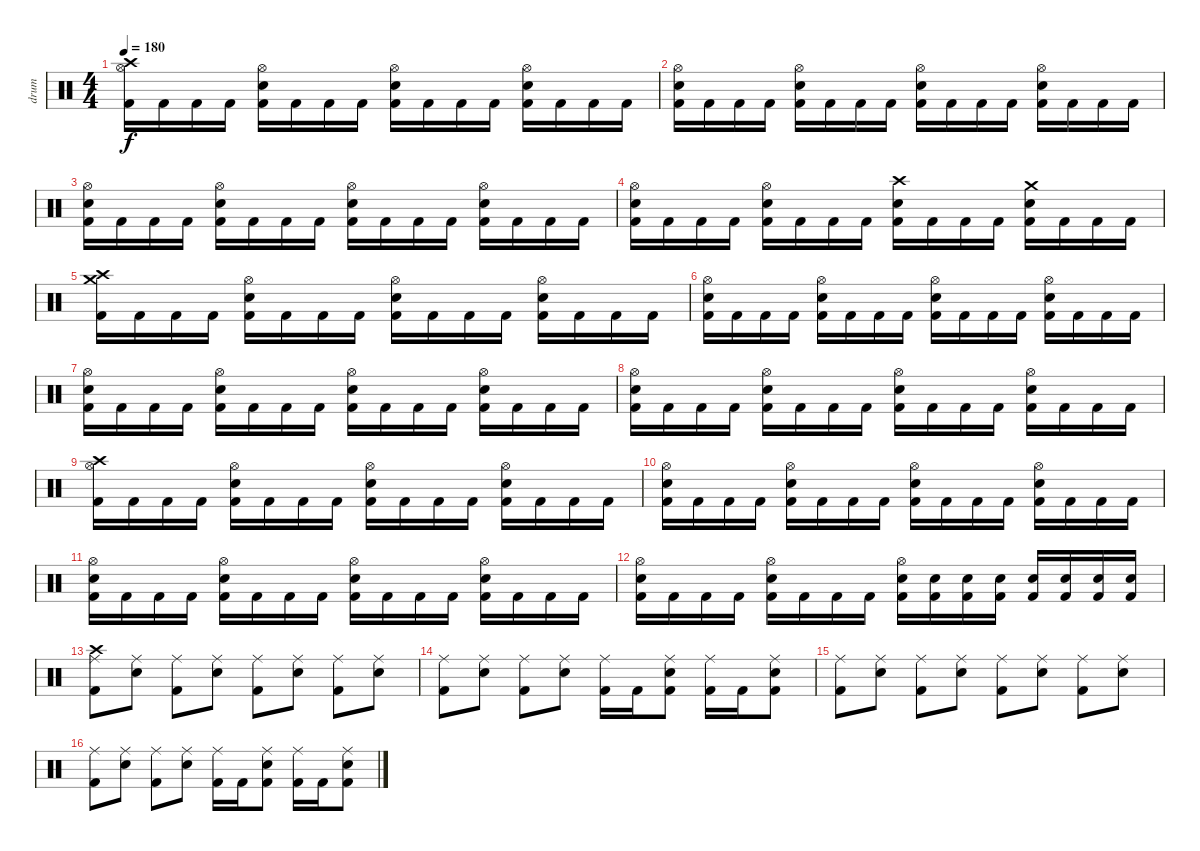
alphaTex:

\track ("drum" "drum") {instrument percussion}
\staff {score}
\articulation defaults
\ts (4 4)
\tempo 180
\clef neutral
\ks c
("Hi-Hat (open)" "Crash high (hit)" "Kick (hit) 2").16{dy f} "Kick (hit) 2".16 "Kick (hit) 2".16 "Kick (hit) 2".16 ("Hi-Hat (open)" "Electric Snare (hit)" "Kick (hit) 2").16 "Kick (hit) 2".16 "Kick (hit) 2".16 "Kick (hit) 2".16 ("Hi-Hat (open)" "Electric Snare (hit)" "Kick (hit) 2").16 "Kick (hit) 2".16 "Kick (hit) 2".16 "Kick (hit) 2".16 ("Hi-Hat (open)" "Electric Snare (hit)" "Kick (hit) 2").16 "Kick (hit) 2".16 "Kick (hit) 2".16 "Kick (hit) 2".16 |
("Hi-Hat (open)" "Electric Snare (hit)" "Kick (hit) 2").16 "Kick (hit) 2".16 "Kick (hit) 2".16 "Kick (hit) 2".16 ("Hi-Hat (open)" "Electric Snare (hit)" "Kick (hit) 2").16 "Kick (hit) 2".16 "Kick (hit) 2".16 "Kick (hit) 2".16 ("Hi-Hat (open)" "Electric Snare (hit)" "Kick (hit) 2").16 "Kick (hit) 2".16 "Kick (hit) 2".16 "Kick (hit) 2".16 ("Hi-Hat (open)" "Electric Snare (hit)" "Kick (hit) 2").16 "Kick (hit) 2".16 "Kick (hit) 2".16 "Kick (hit) 2".16 |
("Hi-Hat (open)" "Electric Snare (hit)" "Kick (hit) 2").16 "Kick (hit) 2".16 "Kick (hit) 2".16 "Kick (hit) 2".16 ("Hi-Hat (open)" "Electric Snare (hit)" "Kick (hit) 2").16 "Kick (hit) 2".16 "Kick (hit) 2".16 "Kick (hit) 2".16 ("Hi-Hat (open)" "Electric Snare (hit)" "Kick (hit) 2").16 "Kick (hit) 2".16 "Kick (hit) 2".16 "Kick (hit) 2".16 ("Hi-Hat (open)" "Electric Snare (hit)" "Kick (hit) 2").16 "Kick (hit) 2".16 "Kick (hit) 2".16 "Kick (hit) 2".16 |
("Hi-Hat (open)" "Electric Snare (hit)" "Kick (hit) 2").16 "Kick (hit) 2".16 "Kick (hit) 2".16 "Kick (hit) 2".16 ("Hi-Hat (open)" "Electric Snare (hit)" "Kick (hit) 2").16 "Kick (hit) 2".16 "Kick (hit) 2".16 "Kick (hit) 2".16 ("Crash high (hit)" "Electric Snare (hit)" "Kick (hit) 2").16 "Kick (hit) 2".16 "Kick (hit) 2".16 "Kick (hit) 2".16 ("Crash medium (hit)" "Electric Snare (hit)" "Kick (hit) 2").16 "Kick (hit) 2".16 "Kick (hit) 2".16 "Kick (hit) 2".16 |
("Crash medium (hit)" "Crash high (hit)" "Kick (hit) 2").16 "Kick (hit) 2".16 "Kick (hit) 2".16 "Kick (hit) 2".16 ("Hi-Hat (open)" "Electric Snare (hit)" "Kick (hit) 2").16 "Kick (hit) 2".16 "Kick (hit) 2".16 "Kick (hit) 2".16 ("Hi-Hat (open)" "Electric Snare (hit)" "Kick (hit) 2").16 "Kick (hit) 2".16 "Kick (hit) 2".16 "Kick (hit) 2".16 ("Hi-Hat (open)" "Electric Snare (hit)" "Kick (hit) 2").16 "Kick (hit) 2".16 "Kick (hit) 2".16 "Kick (hit) 2".16 |
("Hi-Hat (open)" "Electric Snare (hit)" "Kick (hit) 2").16 "Kick (hit) 2".16 "Kick (hit) 2".16 "Kick (hit) 2".16 ("Hi-Hat (open)" "Electric Snare (hit)" "Kick (hit) 2").16 "Kick (hit) 2".16 "Kick (hit) 2".16 "Kick (hit) 2".16 ("Hi-Hat (open)" "Electric Snare (hit)" "Kick (hit) 2").16 "Kick (hit) 2".16 "Kick (hit) 2".16 "Kick (hit) 2".16 ("Hi-Hat (open)" "Electric Snare (hit)" "Kick (hit) 2").16 "Kick (hit) 2".16 "Kick (hit) 2".16 "Kick (hit) 2".16 |
("Hi-Hat (open)" "Electric Snare (hit)" "Kick (hit) 2").16 "Kick (hit) 2".16 "Kick (hit) 2".16 "Kick (hit) 2".16 ("Hi-Hat (open)" "Electric Snare (hit)" "Kick (hit) 2").16 "Kick (hit) 2".16 "Kick (hit) 2".16 "Kick (hit) 2".16 ("Hi-Hat (open)" "Electric Snare (hit)" "Kick (hit) 2").16 "Kick (hit) 2".16 "Kick (hit) 2".16 "Kick (hit) 2".16 ("Hi-Hat (open)" "Electric Snare (hit)" "Kick (hit) 2").16 "Kick (hit) 2".16 "Kick (hit) 2".16 "Kick (hit) 2".16 |
("Hi-Hat (open)" "Electric Snare (hit)" "Kick (hit) 2").16 "Kick (hit) 2".16 "Kick (hit) 2".16 "Kick (hit) 2".16 ("Hi-Hat (open)" "Electric Snare (hit)" "Kick (hit) 2").16 "Kick (hit) 2".16 "Kick (hit) 2".16 "Kick (hit) 2".16 ("Hi-Hat (open)" "Electric Snare (hit)" "Kick (hit) 2").16 "Kick (hit) 2".16 "Kick (hit) 2".16 "Kick (hit) 2".16 ("Hi-Hat (open)" "Electric Snare (hit)" "Kick (hit) 2").16 "Kick (hit) 2".16 "Kick (hit) 2".16 "Kick (hit) 2".16 |
("Hi-Hat (open)" "Crash high (hit)" "Kick (hit) 2").16 "Kick (hit) 2".16 "Kick (hit) 2".16 "Kick (hit) 2".16 ("Hi-Hat (open)" "Electric Snare (hit)" "Kick (hit) 2").16 "Kick (hit) 2".16 "Kick (hit) 2".16 "Kick (hit) 2".16 ("Hi-Hat (open)" "Electric Snare (hit)" "Kick (hit) 2").16 "Kick (hit) 2".16 "Kick (hit) 2".16 "Kick (hit) 2".16 ("Hi-Hat (open)" "Electric Snare (hit)" "Kick (hit) 2").16 "Kick (hit) 2".16 "Kick (hit) 2".16 "Kick (hit) 2".16 |
("Hi-Hat (open)" "Electric Snare (hit)" "Kick (hit) 2").16 "Kick (hit) 2".16 "Kick (hit) 2".16 "Kick (hit) 2".16 ("Hi-Hat (open)" "Electric Snare (hit)" "Kick (hit) 2").16 "Kick (hit) 2".16 "Kick (hit) 2".16 "Kick (hit) 2".16 ("Hi-Hat (open)" "Electric Snare (hit)" "Kick (hit) 2").16 "Kick (hit) 2".16 "Kick (hit) 2".16 "Kick (hit) 2".16 ("Hi-Hat (open)" "Electric Snare (hit)" "Kick (hit) 2").16 "Kick (hit) 2".16 "Kick (hit) 2".16 "Kick (hit) 2".16 |
("Hi-Hat (open)" "Electric Snare (hit)" "Kick (hit) 2").16 "Kick (hit) 2".16 "Kick (hit) 2".16 "Kick (hit) 2".16 ("Hi-Hat (open)" "Electric Snare (hit)" "Kick (hit) 2").16 "Kick (hit) 2".16 "Kick (hit) 2".16 "Kick (hit) 2".16 ("Hi-Hat (open)" "Electric Snare (hit)" "Kick (hit) 2").16 "Kick (hit) 2".16 "Kick (hit) 2".16 "Kick (hit) 2".16 ("Hi-Hat (open)" "Electric Snare (hit)" "Kick (hit) 2").16 "Kick (hit) 2".16 "Kick (hit) 2".16 "Kick (hit) 2".16 |
("Hi-Hat (open)" "Electric Snare (hit)" "Kick (hit) 2").16 "Kick (hit) 2".16 "Kick (hit) 2".16 "Kick (hit) 2".16 ("Hi-Hat (open)" "Electric Snare (hit)" "Kick (hit) 2").16 "Kick (hit) 2".16 "Kick (hit) 2".16 "Kick (hit) 2".16 ("Hi-Hat (open)" "Electric Snare (hit)" "Kick (hit) 2").16 ("Electric Snare (hit)" "Kick (hit) 2").16 ("Electric Snare (hit)" "Kick (hit) 2").16 ("Electric Snare (hit)" "Kick (hit) 2").16 ("Electric Snare (hit)" "Kick (hit) 2").16 ("Electric Snare (hit)" "Kick (hit) 2").16 ("Electric Snare (hit)" "Kick (hit) 2").16 ("Electric Snare (hit)" "Kick (hit) 2").16 |
("Crash high (hit)" "Ride (middle)" "Kick (hit) 2").8 ("Ride (middle)" "Electric Snare (hit)").8 ("Ride (middle)" "Kick (hit) 2").8 ("Ride (middle)" "Electric Snare (hit)").8 ("Ride (middle)" "Kick (hit) 2").8 ("Ride (middle)" "Electric Snare (hit)").8 ("Ride (middle)" "Kick (hit) 2").8 ("Ride (middle)" "Electric Snare (hit)").8 |
("Ride (middle)" "Kick (hit) 2").8 ("Ride (middle)" "Electric Snare (hit)").8 ("Ride (middle)" "Kick (hit) 2").8 ("Ride (middle)" "Electric Snare (hit)").8 ("Ride (middle)" "Kick (hit) 2").16 "Kick (hit) 2".16 ("Ride (middle)" "Electric Snare (hit)" "Kick (hit) 2").8 ("Ride (middle)" "Kick (hit) 2").16 "Kick (hit) 2".16 ("Ride (middle)" "Electric Snare (hit)" "Kick (hit) 2").8 |
("Ride (middle)" "Kick (hit) 2").8 ("Ride (middle)" "Electric Snare (hit)").8 ("Ride (middle)" "Kick (hit) 2").8 ("Ride (middle)" "Electric Snare (hit)").8 ("Ride (middle)" "Kick (hit) 2").8 ("Ride (middle)" "Electric Snare (hit)").8 ("Ride (middle)" "Kick (hit) 2").8 ("Ride (middle)" "Electric Snare (hit)").8 |
("Ride (middle)" "Kick (hit) 2").8 ("Ride (middle)" "Electric Snare (hit)").8 ("Ride (middle)" "Kick (hit) 2").8 ("Ride (middle)" "Electric Snare (hit)").8 ("Ride (middle)" "Kick (hit) 2").16 "Kick (hit) 2".16 ("Ride (middle)" "Electric Snare (hit)" "Kick (hit) 2").8 ("Ride (middle)" "Kick (hit) 2").16 "Kick (hit) 2".16 ("Ride (middle)" "Electric Snare (hit)" "Kick (hit) 2").8
